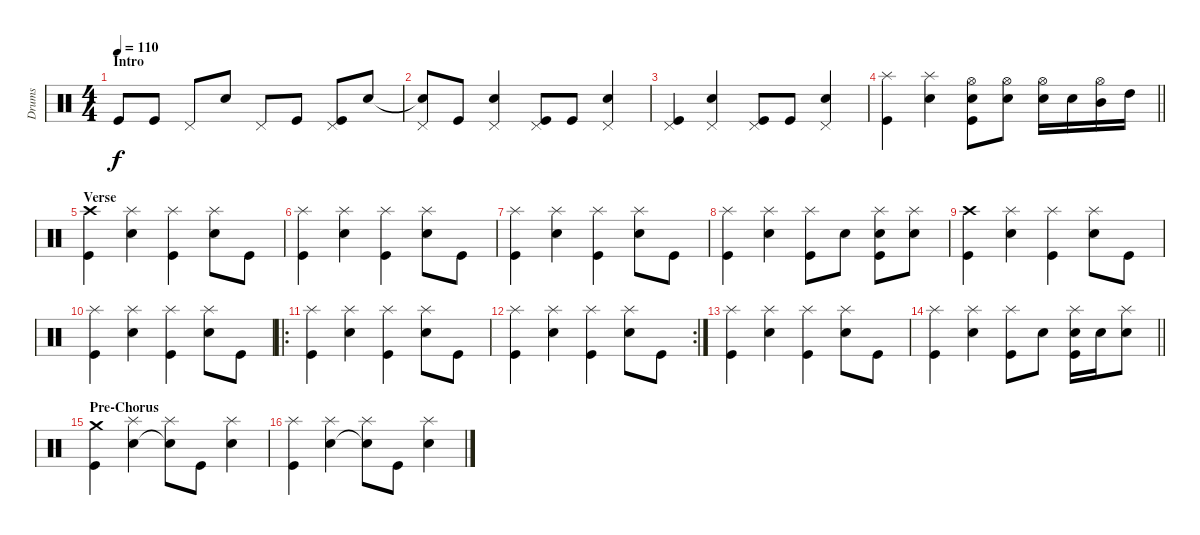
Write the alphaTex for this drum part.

\track ("Drums" "Drums") {instrument percussion}
\staff {score}
\articulation defaults
\ts (4 4)
\section ("" "Intro")
\tempo 110
\clef neutral
\ks c "Kick (hit)".8{dy f} "Kick (hit)".8 "Pedal Hi-Hat (hit)".8 "Electric Snare (hit)".8 "Pedal Hi-Hat (hit)".8 "Kick (hit)".8
("Kick (hit)" "Pedal Hi-Hat (hit)").8 "Electric Snare (hit)".8 |
("Electric Snare (hit)"{t} "Pedal Hi-Hat (hit)").8 "Kick (hit)".8 ("Electric Snare (hit)" "Pedal Hi-Hat (hit)").4 ("Kick (hit)" "Pedal Hi-Hat (hit)").8 "Kick (hit)".8 ("Electric Snare (hit)" "Pedal Hi-Hat (hit)").4 |
("Kick (hit)" "Pedal Hi-Hat (hit)").4 ("Electric Snare (hit)" "Pedal Hi-Hat (hit)").4 ("Kick (hit)" "Pedal Hi-Hat (hit)").8 "Kick (hit)".8 ("Electric Snare (hit)" "Pedal Hi-Hat (hit)").4 |
\barLineRight lightlight
("Kick (hit)" "Splash (hit)").4 ("Electric Snare (hit)" "Splash (hit)").4 ("Kick (hit)" "Electric Snare (hit)" "Hi-Hat (open)").8 ("Electric Snare (hit)" "Hi-Hat (open)").8 ("Electric Snare (hit)" "Hi-Hat (open)").16 "Electric Snare (hit)".16 ("Mid Tom (hit)" "Hi-Hat (open)").16 "High Tom (hit)".16 |
\section ("" "Verse")
("Kick (hit)" "Crash high (hit)").4 ("Electric Snare (hit)" "Splash (hit)").4 ("Kick (hit)" "Splash (hit)").4 ("Electric Snare (hit)" "Splash (hit)").8 "Kick (hit)".8 |
("Kick (hit)" "Splash (hit)").4 ("Electric Snare (hit)" "Splash (hit)").4 ("Kick (hit)" "Splash (hit)").4 ("Electric Snare (hit)" "Splash (hit)").8 "Kick (hit)".8 |
("Kick (hit)" "Splash (hit)").4 ("Electric Snare (hit)" "Splash (hit)").4 ("Kick (hit)" "Splash (hit)").4 ("Electric Snare (hit)" "Splash (hit)").8 "Kick (hit)".8 |
("Kick (hit)" "Splash (hit)").4 ("Electric Snare (hit)" "Splash (hit)").4 ("Kick (hit)" "Splash (hit)").8 "Electric Snare (hit)".8 ("Kick (hit)" "Electric Snare (hit)" "Splash (hit)").8 ("Electric Snare (hit)" "Splash (hit)").8 |
("Kick (hit)" "Crash high (hit)").4 ("Electric Snare (hit)" "Splash (hit)").4 ("Kick (hit)" "Splash (hit)").4 ("Electric Snare (hit)" "Splash (hit)").8 "Kick (hit)".8 |
("Kick (hit)" "Splash (hit)").4 ("Electric Snare (hit)" "Splash (hit)").4 ("Kick (hit)" "Splash (hit)").4 ("Electric Snare (hit)" "Splash (hit)").8 "Kick (hit)".8 |
\ro
("Kick (hit)" "Splash (hit)").4 ("Electric Snare (hit)" "Splash (hit)").4 ("Kick (hit)" "Splash (hit)").4 ("Electric Snare (hit)" "Splash (hit)").8 "Kick (hit)".8 |
\rc 2
("Kick (hit)" "Splash (hit)").4 ("Electric Snare (hit)" "Splash (hit)").4 ("Kick (hit)" "Splash (hit)").4 ("Electric Snare (hit)" "Splash (hit)").8 "Kick (hit)".8 |
("Kick (hit)" "Splash (hit)").4 ("Electric Snare (hit)" "Splash (hit)").4 ("Kick (hit)" "Splash (hit)").4 ("Electric Snare (hit)" "Splash (hit)").8 "Kick (hit)".8 |
\barLineRight lightlight
("Kick (hit)" "Splash (hit)").4 ("Electric Snare (hit)" "Splash (hit)").4 ("Kick (hit)" "Splash (hit)").8 "Electric Snare (hit)".8 ("Kick (hit)" "Electric Snare (hit)" "Splash (hit)").16 "Electric Snare (hit)".16 ("Electric Snare (hit)" "Splash (hit)").8 |
\section ("" "Pre-Chorus")
("Kick (hit)" "Crash medium (hit)").4 ("Electric Snare (hit)" "Splash (hit)").4 ("Electric Snare (hit)"{t} "Splash (hit)").8 "Kick (hit)".8 ("Electric Snare (hit)" "Splash (hit)").4 |
("Kick (hit)" "Splash (hit)").4 ("Electric Snare (hit)" "Splash (hit)").4 ("Electric Snare (hit)"{t} "Splash (hit)").8 "Kick (hit)".8 ("Electric Snare (hit)" "Splash (hit)").4
